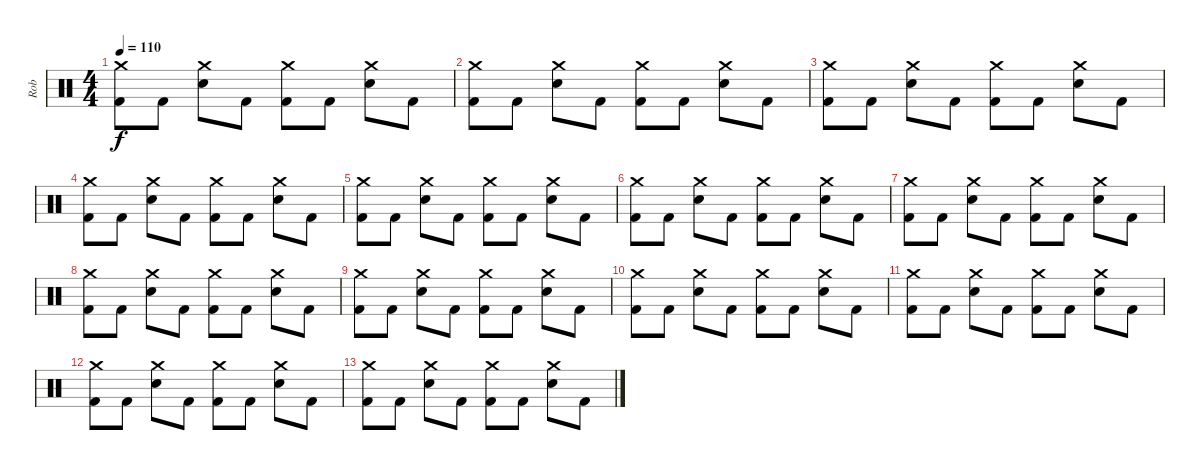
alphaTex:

\track ("Rob" "Rob") {instrument percussion}
\staff {score}
\articulation defaults
\ts (4 4)
\tempo 110
\clef neutral
\ks c
("Crash medium (hit)" "Kick (hit) 2").8{dy f} "Kick (hit) 2".8 ("Crash medium (hit)" "Electric Snare (hit)").8 "Kick (hit) 2".8 ("Crash medium (hit)" "Kick (hit) 2").8 "Kick (hit) 2".8 ("Crash medium (hit)" "Electric Snare (hit)").8 "Kick (hit) 2".8 |
("Crash medium (hit)" "Kick (hit) 2").8 "Kick (hit) 2".8 ("Crash medium (hit)" "Electric Snare (hit)").8 "Kick (hit) 2".8 ("Crash medium (hit)" "Kick (hit) 2").8 "Kick (hit) 2".8 ("Crash medium (hit)" "Electric Snare (hit)").8 "Kick (hit) 2".8 |
("Crash medium (hit)" "Kick (hit) 2").8 "Kick (hit) 2".8 ("Crash medium (hit)" "Electric Snare (hit)").8 "Kick (hit) 2".8 ("Crash medium (hit)" "Kick (hit) 2").8 "Kick (hit) 2".8 ("Crash medium (hit)" "Electric Snare (hit)").8 "Kick (hit) 2".8 |
("Crash medium (hit)" "Kick (hit) 2").8 "Kick (hit) 2".8 ("Crash medium (hit)" "Electric Snare (hit)").8 "Kick (hit) 2".8 ("Crash medium (hit)" "Kick (hit) 2").8 "Kick (hit) 2".8 ("Crash medium (hit)" "Electric Snare (hit)").8 "Kick (hit) 2".8 |
("Crash medium (hit)" "Kick (hit) 2").8 "Kick (hit) 2".8 ("Crash medium (hit)" "Electric Snare (hit)").8 "Kick (hit) 2".8 ("Crash medium (hit)" "Kick (hit) 2").8 "Kick (hit) 2".8 ("Crash medium (hit)" "Electric Snare (hit)").8 "Kick (hit) 2".8 |
("Crash medium (hit)" "Kick (hit) 2").8 "Kick (hit) 2".8 ("Crash medium (hit)" "Electric Snare (hit)").8 "Kick (hit) 2".8 ("Crash medium (hit)" "Kick (hit) 2").8 "Kick (hit) 2".8 ("Crash medium (hit)" "Electric Snare (hit)").8 "Kick (hit) 2".8 |
("Crash medium (hit)" "Kick (hit) 2").8 "Kick (hit) 2".8 ("Crash medium (hit)" "Electric Snare (hit)").8 "Kick (hit) 2".8 ("Crash medium (hit)" "Kick (hit) 2").8 "Kick (hit) 2".8 ("Crash medium (hit)" "Electric Snare (hit)").8 "Kick (hit) 2".8 |
("Crash medium (hit)" "Kick (hit) 2").8 "Kick (hit) 2".8 ("Crash medium (hit)" "Electric Snare (hit)").8 "Kick (hit) 2".8 ("Crash medium (hit)" "Kick (hit) 2").8 "Kick (hit) 2".8 ("Crash medium (hit)" "Electric Snare (hit)").8 "Kick (hit) 2".8 |
("Crash medium (hit)" "Kick (hit) 2").8 "Kick (hit) 2".8 ("Crash medium (hit)" "Electric Snare (hit)").8 "Kick (hit) 2".8 ("Crash medium (hit)" "Kick (hit) 2").8 "Kick (hit) 2".8 ("Crash medium (hit)" "Electric Snare (hit)").8 "Kick (hit) 2".8 |
("Crash medium (hit)" "Kick (hit) 2").8 "Kick (hit) 2".8 ("Crash medium (hit)" "Electric Snare (hit)").8 "Kick (hit) 2".8 ("Crash medium (hit)" "Kick (hit) 2").8 "Kick (hit) 2".8 ("Crash medium (hit)" "Electric Snare (hit)").8 "Kick (hit) 2".8 |
("Crash medium (hit)" "Kick (hit) 2").8 "Kick (hit) 2".8 ("Crash medium (hit)" "Electric Snare (hit)").8 "Kick (hit) 2".8 ("Crash medium (hit)" "Kick (hit) 2").8 "Kick (hit) 2".8 ("Crash medium (hit)" "Electric Snare (hit)").8 "Kick (hit) 2".8 |
("Crash medium (hit)" "Kick (hit) 2").8 "Kick (hit) 2".8 ("Crash medium (hit)" "Electric Snare (hit)").8 "Kick (hit) 2".8 ("Crash medium (hit)" "Kick (hit) 2").8 "Kick (hit) 2".8 ("Crash medium (hit)" "Electric Snare (hit)").8 "Kick (hit) 2".8 |
("Crash medium (hit)" "Kick (hit) 2").8 "Kick (hit) 2".8 ("Crash medium (hit)" "Electric Snare (hit)").8 "Kick (hit) 2".8 ("Crash medium (hit)" "Kick (hit) 2").8 "Kick (hit) 2".8 ("Crash medium (hit)" "Electric Snare (hit)").8 "Kick (hit) 2".8
